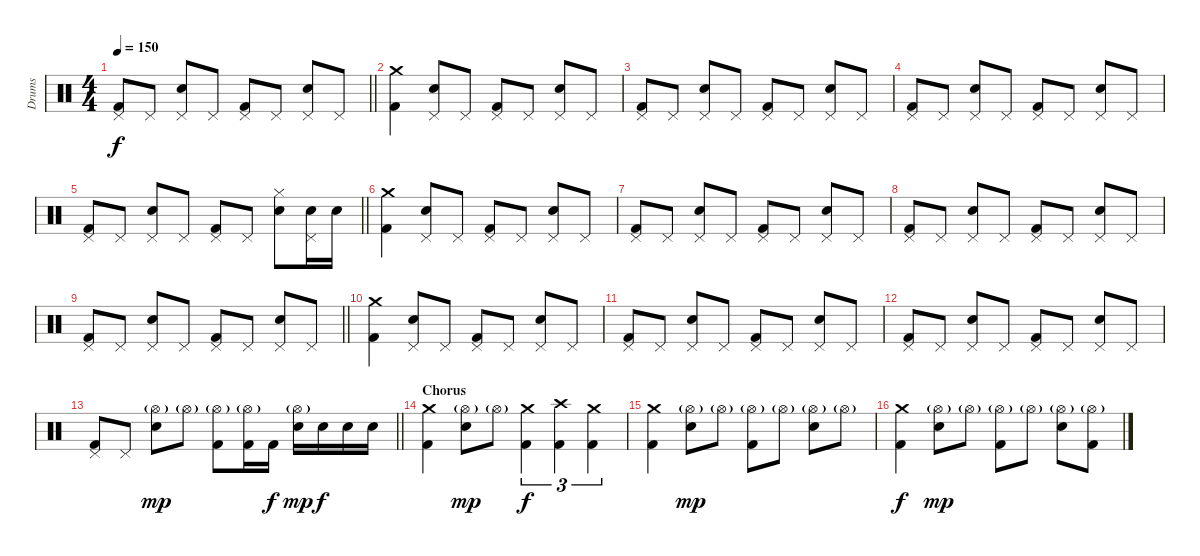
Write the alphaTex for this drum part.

\track ("Drums" "Drums") {instrument percussion}
\staff {score}
\articulation defaults
\ts (4 4)
\tempo 150
\clef neutral
\barLineRight lightlight
\ks c
("Kick (hit) 2" "Pedal Hi-Hat (hit)").8{dy f} "Pedal Hi-Hat (hit)".8 ("Snare (hit) 2" "Pedal Hi-Hat (hit)").8 "Pedal Hi-Hat (hit)".8 ("Kick (hit) 2" "Pedal Hi-Hat (hit)").8 "Pedal Hi-Hat (hit)".8 ("Snare (hit) 2" "Pedal Hi-Hat (hit)").8 "Pedal Hi-Hat (hit)".8 |
\section ("" "")
("Kick (hit) 2" "Crash medium (hit)").4 ("Snare (hit) 2" "Pedal Hi-Hat (hit)").8 "Pedal Hi-Hat (hit)".8 ("Kick (hit) 2" "Pedal Hi-Hat (hit)").8 "Pedal Hi-Hat (hit)".8 ("Snare (hit) 2" "Pedal Hi-Hat (hit)").8 "Pedal Hi-Hat (hit)".8 |
("Kick (hit) 2" "Pedal Hi-Hat (hit)").8 "Pedal Hi-Hat (hit)".8 ("Snare (hit) 2" "Pedal Hi-Hat (hit)").8 "Pedal Hi-Hat (hit)".8 ("Kick (hit) 2" "Pedal Hi-Hat (hit)").8 "Pedal Hi-Hat (hit)".8 ("Snare (hit) 2" "Pedal Hi-Hat (hit)").8 "Pedal Hi-Hat (hit)".8 |
("Kick (hit) 2" "Pedal Hi-Hat (hit)").8 "Pedal Hi-Hat (hit)".8 ("Snare (hit) 2" "Pedal Hi-Hat (hit)").8 "Pedal Hi-Hat (hit)".8 ("Kick (hit) 2" "Pedal Hi-Hat (hit)").8 "Pedal Hi-Hat (hit)".8 ("Snare (hit) 2" "Pedal Hi-Hat (hit)").8 "Pedal Hi-Hat (hit)".8 |
\barLineRight lightlight
("Kick (hit) 2" "Pedal Hi-Hat (hit)").8 "Pedal Hi-Hat (hit)".8 ("Snare (hit) 2" "Pedal Hi-Hat (hit)").8 "Pedal Hi-Hat (hit)".8 ("Kick (hit) 2" "Pedal Hi-Hat (hit)").8 "Pedal Hi-Hat (hit)".8 ("Snare (hit) 2" "Hi-Hat (closed)").8 ("Snare (hit) 2" "Pedal Hi-Hat (hit)").16 "Snare (hit) 2".16 |
\section ("" "")
("Kick (hit) 2" "Crash medium (hit)").4 ("Snare (hit) 2" "Pedal Hi-Hat (hit)").8 "Pedal Hi-Hat (hit)".8 ("Kick (hit) 2" "Pedal Hi-Hat (hit)").8 "Pedal Hi-Hat (hit)".8 ("Snare (hit) 2" "Pedal Hi-Hat (hit)").8 "Pedal Hi-Hat (hit)".8 |
("Kick (hit) 2" "Pedal Hi-Hat (hit)").8 "Pedal Hi-Hat (hit)".8 ("Snare (hit) 2" "Pedal Hi-Hat (hit)").8 "Pedal Hi-Hat (hit)".8 ("Kick (hit) 2" "Pedal Hi-Hat (hit)").8 "Pedal Hi-Hat (hit)".8 ("Snare (hit) 2" "Pedal Hi-Hat (hit)").8 "Pedal Hi-Hat (hit)".8 |
("Kick (hit) 2" "Pedal Hi-Hat (hit)").8 "Pedal Hi-Hat (hit)".8 ("Snare (hit) 2" "Pedal Hi-Hat (hit)").8 "Pedal Hi-Hat (hit)".8 ("Kick (hit) 2" "Pedal Hi-Hat (hit)").8 "Pedal Hi-Hat (hit)".8 ("Snare (hit) 2" "Pedal Hi-Hat (hit)").8 "Pedal Hi-Hat (hit)".8 |
\barLineRight lightlight
("Kick (hit) 2" "Pedal Hi-Hat (hit)").8 "Pedal Hi-Hat (hit)".8 ("Snare (hit) 2" "Pedal Hi-Hat (hit)").8 "Pedal Hi-Hat (hit)".8 ("Kick (hit) 2" "Pedal Hi-Hat (hit)").8 "Pedal Hi-Hat (hit)".8 ("Snare (hit) 2" "Pedal Hi-Hat (hit)").8 "Pedal Hi-Hat (hit)".8 |
\section ("" "")
("Kick (hit) 2" "Crash medium (hit)").4 ("Snare (hit) 2" "Pedal Hi-Hat (hit)").8 "Pedal Hi-Hat (hit)".8 ("Kick (hit) 2" "Pedal Hi-Hat (hit)").8 "Pedal Hi-Hat (hit)".8 ("Snare (hit) 2" "Pedal Hi-Hat (hit)").8 "Pedal Hi-Hat (hit)".8 |
("Kick (hit) 2" "Pedal Hi-Hat (hit)").8 "Pedal Hi-Hat (hit)".8 ("Snare (hit) 2" "Pedal Hi-Hat (hit)").8 "Pedal Hi-Hat (hit)".8 ("Kick (hit) 2" "Pedal Hi-Hat (hit)").8 "Pedal Hi-Hat (hit)".8 ("Snare (hit) 2" "Pedal Hi-Hat (hit)").8 "Pedal Hi-Hat (hit)".8 |
("Kick (hit) 2" "Pedal Hi-Hat (hit)").8 "Pedal Hi-Hat (hit)".8 ("Snare (hit) 2" "Pedal Hi-Hat (hit)").8 "Pedal Hi-Hat (hit)".8 ("Kick (hit) 2" "Pedal Hi-Hat (hit)").8 "Pedal Hi-Hat (hit)".8 ("Snare (hit) 2" "Pedal Hi-Hat (hit)").8 "Pedal Hi-Hat (hit)".8 |
\barLineRight lightlight
("Kick (hit) 2" "Pedal Hi-Hat (hit)").8 "Pedal Hi-Hat (hit)".8 ("Snare (hit) 2" "Hi-Hat (open)"{g}).8{dy mp} "Hi-Hat (open)"{g}.8 ("Kick (hit) 2" "Hi-Hat (open)"{g}).8 ("Kick (hit) 2" "Hi-Hat (open)"{g}).16 "Kick (hit) 2".16{dy f} ("Snare (hit) 2" "Hi-Hat (open)"{g}).16{dy mp} "Snare (hit) 2".16{dy f} "Snare (hit) 2".16 "Snare (hit) 2".16 |
\section ("" "Chorus")
("Kick (hit) 2" "Crash medium (hit)").4 ("Snare (hit) 2" "Hi-Hat (open)"{g}).8{dy mp} "Hi-Hat (open)"{g}.8 ("Kick (hit) 2" "Crash medium (hit)").4{tu (3 2) dy f} ("Kick (hit) 2" "Crash high (hit)").4{tu (3 2)} ("Kick (hit) 2" "Crash medium (hit)").4{tu (3 2)} |
("Kick (hit) 2" "Crash medium (hit)").4 ("Snare (hit) 2" "Hi-Hat (open)"{g}).8{dy mp} "Hi-Hat (open)"{g}.8 ("Kick (hit) 2" "Hi-Hat (open)"{g}).8 "Hi-Hat (open)"{g}.8 ("Snare (hit) 2" "Hi-Hat (open)"{g}).8 "Hi-Hat (open)"{g}.8 |
("Kick (hit) 2" "Crash medium (hit)").4{dy f} ("Snare (hit) 2" "Hi-Hat (open)"{g}).8{dy mp} "Hi-Hat (open)"{g}.8 ("Kick (hit) 2" "Hi-Hat (open)"{g}).8 "Hi-Hat (open)"{g}.8 ("Snare (hit) 2" "Hi-Hat (open)"{g}).8 ("Kick (hit) 2" "Hi-Hat (open)"{g}).8
